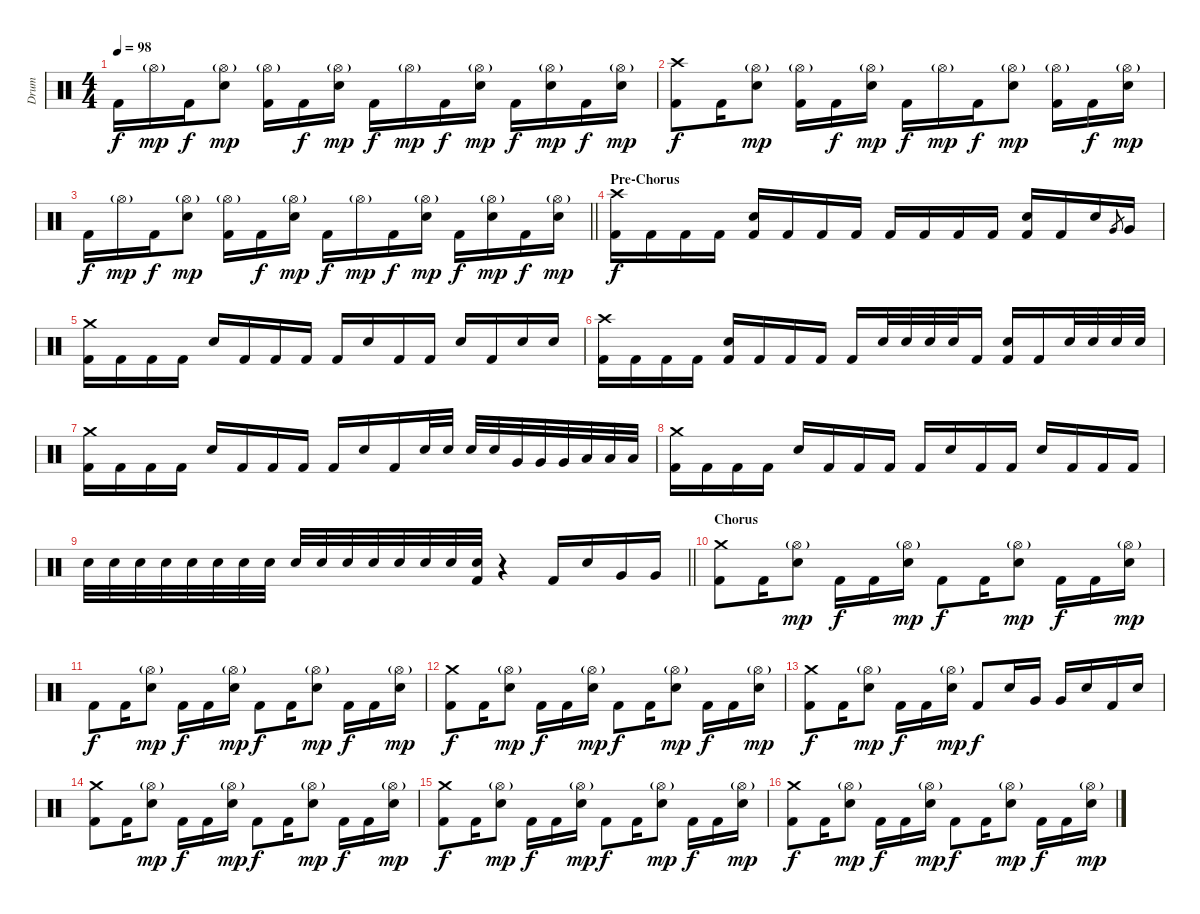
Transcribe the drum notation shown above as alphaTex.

\track ("Drum" "Drum") {instrument percussion}
\staff {score}
\articulation defaults
\ts (4 4)
\tempo 98
\clef neutral
\ks c "Kick (hit) 2".16{dy f} "Hi-Hat (open)"{g}.16{dy mp} "Kick (hit) 2".16{dy f}
("Hi-Hat (open)"{g} "Electric Snare (hit)").8{dy mp} ("Hi-Hat (open)"{g} "Kick (hit) 2").16 "Kick (hit) 2".16{dy f} ("Hi-Hat (open)"{g} "Electric Snare (hit)").16{dy mp} "Kick (hit) 2".16{dy f} "Hi-Hat (open)"{g}.16{dy mp} "Kick (hit) 2".16{dy f} ("Hi-Hat (open)"{g} "Electric Snare (hit)").16{dy mp} "Kick (hit) 2".16{dy f} ("Hi-Hat (open)"{g} "Electric Snare (hit)").16{dy mp} "Kick (hit) 2".16{dy f} ("Hi-Hat (open)"{g} "Electric Snare (hit)").16{dy mp} |
("Crash high (hit)" "Kick (hit) 2").8{dy f} "Kick (hit) 2".16 ("Hi-Hat (open)"{g} "Electric Snare (hit)").8{dy mp} ("Hi-Hat (open)"{g} "Kick (hit) 2").16 "Kick (hit) 2".16{dy f} ("Hi-Hat (open)"{g} "Electric Snare (hit)").16{dy mp} "Kick (hit) 2".16{dy f} "Hi-Hat (open)"{g}.16{dy mp} "Kick (hit) 2".16{dy f} ("Hi-Hat (open)"{g} "Electric Snare (hit)").8{dy mp} ("Hi-Hat (open)"{g} "Kick (hit) 2").16 "Kick (hit) 2".16{dy f} ("Hi-Hat (open)"{g} "Electric Snare (hit)").16{dy mp} |
\barLineRight lightlight "Kick (hit) 2".16{dy f} "Hi-Hat (open)"{g}.16{dy mp} "Kick (hit) 2".16{dy f}
("Hi-Hat (open)"{g} "Electric Snare (hit)").8{dy mp} ("Hi-Hat (open)"{g} "Kick (hit) 2").16 "Kick (hit) 2".16{dy f} ("Hi-Hat (open)"{g} "Electric Snare (hit)").16{dy mp} "Kick (hit) 2".16{dy f} "Hi-Hat (open)"{g}.16{dy mp} "Kick (hit) 2".16{dy f} ("Hi-Hat (open)"{g} "Electric Snare (hit)").16{dy mp} "Kick (hit) 2".16{dy f} ("Hi-Hat (open)"{g} "Electric Snare (hit)").16{dy mp} "Kick (hit) 2".16{dy f} ("Hi-Hat (open)"{g} "Electric Snare (hit)").16{dy mp} |
\section ("" "Pre-Chorus")
("Crash high (hit)" "Kick (hit) 2").16{dy f} "Kick (hit) 2".16 "Kick (hit) 2".16 "Kick (hit) 2".16 ("Electric Snare (hit)" "Kick (hit) 2").16 "Kick (hit) 2".16 "Kick (hit) 2".16 "Kick (hit) 2".16 "Kick (hit) 2".16 "Kick (hit) 2".16 "Kick (hit) 2".16 "Kick (hit) 2".16 ("Electric Snare (hit)" "Kick (hit) 2").16 "Kick (hit) 2".16 "Electric Snare (hit)".16 "Very Low Tom (hit)".8{gr} "Very Low Tom (hit)".16 |
("Crash medium (hit)" "Kick (hit) 2").16 "Kick (hit) 2".16 "Kick (hit) 2".16 "Kick (hit) 2".16 "Electric Snare (hit)".16 "Kick (hit) 2".16 "Kick (hit) 2".16 "Kick (hit) 2".16 "Kick (hit) 2".16 "Electric Snare (hit)".16 "Kick (hit) 2".16 "Kick (hit) 2".16 "Electric Snare (hit)".16 "Kick (hit) 2".16 "Electric Snare (hit)".16 "Electric Snare (hit)".16 |
("Crash high (hit)" "Kick (hit) 2").16 "Kick (hit) 2".16 "Kick (hit) 2".16 "Kick (hit) 2".16 ("Electric Snare (hit)" "Kick (hit) 2").16 "Kick (hit) 2".16 "Kick (hit) 2".16 "Kick (hit) 2".16 "Kick (hit) 2".16 "Electric Snare (hit)".32 "Electric Snare (hit)".32 "Electric Snare (hit)".32 "Electric Snare (hit)".32 "Kick (hit) 2".16 ("Electric Snare (hit)" "Kick (hit) 2").16 "Kick (hit) 2".16 "Electric Snare (hit)".32 "Electric Snare (hit)".32 "Electric Snare (hit)".32 "Electric Snare (hit)".32 |
("Crash medium (hit)" "Kick (hit) 2").16 "Kick (hit) 2".16 "Kick (hit) 2".16 "Kick (hit) 2".16 "Electric Snare (hit)".16 "Kick (hit) 2".16 "Kick (hit) 2".16 "Kick (hit) 2".16 "Kick (hit) 2".16 "Electric Snare (hit)".16 "Kick (hit) 2".16 "Electric Snare (hit)".32 "Electric Snare (hit)".32 "Electric Snare (hit)".32 "Electric Snare (hit)".32 "Very Low Tom (hit)".32 "Very Low Tom (hit)".32 "Very Low Tom (hit)".32 "Low Floor Tom (hit)".32 "Low Floor Tom (hit)".32 "Low Floor Tom (hit)".32 |
("Crash medium (hit)" "Kick (hit) 2").16 "Kick (hit) 2".16 "Kick (hit) 2".16 "Kick (hit) 2".16 "Electric Snare (hit)".16 "Kick (hit) 2".16 "Kick (hit) 2".16 "Kick (hit) 2".16 "Kick (hit) 2".16 "Electric Snare (hit)".16 "Kick (hit) 2".16 "Kick (hit) 2".16 "Electric Snare (hit)".16 "Kick (hit) 2".16 "Kick (hit) 2".16 "Kick (hit) 2".16 |
\barLineRight lightlight "Electric Snare (hit)".32 "Electric Snare (hit)".32 "Electric Snare (hit)".32 "Electric Snare (hit)".32 "Electric Snare (hit)".32 "Electric Snare (hit)".32 "Electric Snare (hit)".32 "Electric Snare (hit)".32 "Electric Snare (hit)".32 "Electric Snare (hit)".32 "Electric Snare (hit)".32 "Electric Snare (hit)".32 "Electric Snare (hit)".32 "Electric Snare (hit)".32 "Electric Snare (hit)".32
("Electric Snare (hit)" "Kick (hit) 2").32 r.4 "Kick (hit) 2".16 "Electric Snare (hit)".16 "Very Low Tom (hit)".16 "Very Low Tom (hit)".16 |
\section ("" "Chorus")
("Crash medium (hit)" "Kick (hit) 2").8 "Kick (hit) 2".16 ("Hi-Hat (open)"{g} "Electric Snare (hit)").8{dy mp} "Kick (hit) 2".16{dy f} "Kick (hit) 2".16 ("Hi-Hat (open)"{g} "Electric Snare (hit)").16{dy mp} "Kick (hit) 2".8{dy f} "Kick (hit) 2".16 ("Hi-Hat (open)"{g} "Electric Snare (hit)").8{dy mp} "Kick (hit) 2".16{dy f} "Kick (hit) 2".16 ("Hi-Hat (open)"{g} "Electric Snare (hit)").16{dy mp} |
"Kick (hit) 2".8{dy f} "Kick (hit) 2".16 ("Hi-Hat (open)"{g} "Electric Snare (hit)").8{dy mp} "Kick (hit) 2".16{dy f} "Kick (hit) 2".16 ("Hi-Hat (open)"{g} "Electric Snare (hit)").16{dy mp} "Kick (hit) 2".8{dy f} "Kick (hit) 2".16 ("Hi-Hat (open)"{g} "Electric Snare (hit)").8{dy mp} "Kick (hit) 2".16{dy f} "Kick (hit) 2".16 ("Hi-Hat (open)"{g} "Electric Snare (hit)").16{dy mp} |
("Crash medium (hit)" "Kick (hit) 2").8{dy f} "Kick (hit) 2".16 ("Hi-Hat (open)"{g} "Electric Snare (hit)").8{dy mp} "Kick (hit) 2".16{dy f} "Kick (hit) 2".16 ("Hi-Hat (open)"{g} "Electric Snare (hit)").16{dy mp} "Kick (hit) 2".8{dy f} "Kick (hit) 2".16 ("Hi-Hat (open)"{g} "Electric Snare (hit)").8{dy mp} "Kick (hit) 2".16{dy f} "Kick (hit) 2".16 ("Hi-Hat (open)"{g} "Electric Snare (hit)").16{dy mp} |
("Crash medium (hit)" "Kick (hit) 2").8{dy f} "Kick (hit) 2".16 ("Hi-Hat (open)"{g} "Electric Snare (hit)").8{dy mp} "Kick (hit) 2".16{dy f} "Kick (hit) 2".16 ("Hi-Hat (open)"{g} "Electric Snare (hit)").16{dy mp} "Kick (hit) 2".8{dy f} "Electric Snare (hit)".16 "Very Low Tom (hit)".16 "Very Low Tom (hit)".16 "Electric Snare (hit)".16 "Kick (hit) 2".16 "Electric Snare (hit)".16 |
("Crash medium (hit)" "Kick (hit) 2").8 "Kick (hit) 2".16 ("Hi-Hat (open)"{g} "Electric Snare (hit)").8{dy mp} "Kick (hit) 2".16{dy f} "Kick (hit) 2".16 ("Hi-Hat (open)"{g} "Electric Snare (hit)").16{dy mp} "Kick (hit) 2".8{dy f} "Kick (hit) 2".16 ("Hi-Hat (open)"{g} "Electric Snare (hit)").8{dy mp} "Kick (hit) 2".16{dy f} "Kick (hit) 2".16 ("Hi-Hat (open)"{g} "Electric Snare (hit)").16{dy mp} |
("Crash medium (hit)" "Kick (hit) 2").8{dy f} "Kick (hit) 2".16 ("Hi-Hat (open)"{g} "Electric Snare (hit)").8{dy mp} "Kick (hit) 2".16{dy f} "Kick (hit) 2".16 ("Hi-Hat (open)"{g} "Electric Snare (hit)").16{dy mp} "Kick (hit) 2".8{dy f} "Kick (hit) 2".16 ("Hi-Hat (open)"{g} "Electric Snare (hit)").8{dy mp} "Kick (hit) 2".16{dy f} "Kick (hit) 2".16 ("Hi-Hat (open)"{g} "Electric Snare (hit)").16{dy mp} |
("Crash medium (hit)" "Kick (hit) 2").8{dy f} "Kick (hit) 2".16 ("Hi-Hat (open)"{g} "Electric Snare (hit)").8{dy mp} "Kick (hit) 2".16{dy f} "Kick (hit) 2".16 ("Hi-Hat (open)"{g} "Electric Snare (hit)").16{dy mp} "Kick (hit) 2".8{dy f} "Kick (hit) 2".16 ("Hi-Hat (open)"{g} "Electric Snare (hit)").8{dy mp} "Kick (hit) 2".16{dy f} "Kick (hit) 2".16 ("Hi-Hat (open)"{g} "Electric Snare (hit)").16{dy mp}
